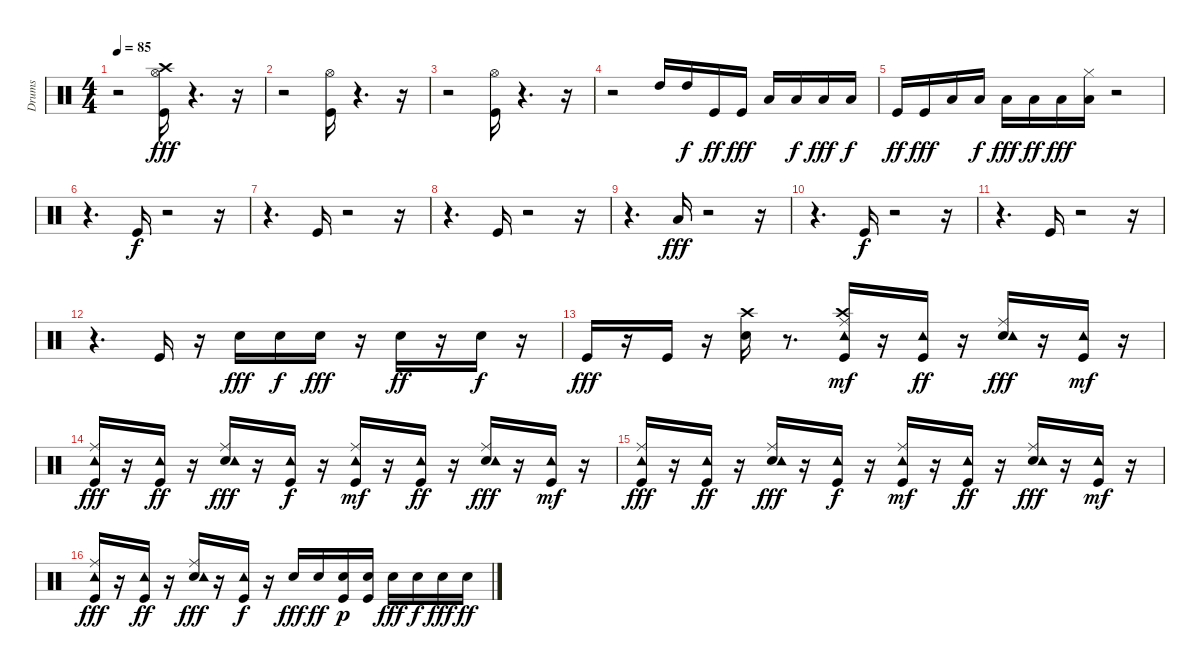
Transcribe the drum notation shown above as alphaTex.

\track ("Drums    " "Drums    ") {instrument percussion}
\staff {score}
\articulation defaults
\ts (4 4)
\tempo 85
\clef neutral
\ks c
r.2{dy f} ("Kick (hit)" "Hi-Hat (open)" "Crash high (hit)").16{dy fff} r.4{d} r.16 |
r.2 ("Kick (hit)" "Hi-Hat (open)").16 r.4{d} r.16 |
r.2 ("Kick (hit)" "Hi-Hat (open)").16 r.4{d} r.16 |
r.2 "High Tom (hit)".16 "High Tom (hit)".16{dy f} "Kick (hit)".16{dy ff} "Kick (hit)".16{dy fff} "Low Tom (hit)".16 "Low Tom (hit)".16{dy f} "Low Tom (hit)".16{dy fff} "Low Tom (hit)".16{dy f} |
"Kick (hit)".16{dy ff} "Kick (hit)".16{dy fff} "Low Floor Tom (hit)".16 "Low Floor Tom (hit)".16{dy f} "Low Floor Tom (hit)".16{dy fff} "Low Floor Tom (hit)".16{dy ff} "Low Floor Tom (hit)".16{dy fff} ("Hi-Hat (closed)" "Low Floor Tom (hit)").16 r.2 |
r.4{d} "Kick (hit)".16{dy f} r.2 r.16 |
r.4{d} "Kick (hit)".16 r.2 r.16 |
r.4{d} "Kick (hit)".16 r.2 r.16 |
r.4{d} "Low Floor Tom (hit)".16{dy fff} r.2 r.16 |
r.4{d} "Kick (hit)".16{dy f} r.2 r.16 |
r.4{d} "Kick (hit)".16 r.2 r.16 |
r.4{d} "Kick (hit)".16 r.16 "Snare (hit) 2".16{dy fff} "Snare (hit) 2".16{dy f} "Snare (hit) 2".16{dy fff} r.16 "Snare (hit) 2".16{dy ff} r.16 "Snare (hit) 2".16{dy f} r.16 |
"Kick (hit)".16{dy fff} r.16 "Kick (hit)".16 r.16 ("Snare (hit) 2" "Crash high (hit)").16 r.8{d} ("Kick (hit)" "Ride (middle)" "Crash high (hit)" "Tambourine (hit)").16{dy mf} r.16 ("Kick (hit)" "Tambourine (hit)").16{dy ff} r.16 ("Snare (hit) 2" "Ride (middle)" "Tambourine (hit)").16{dy fff} r.16 ("Kick (hit)" "Tambourine (hit)").16{dy mf} r.16 |
("Kick (hit)" "Ride (middle)" "Tambourine (hit)").16{dy fff} r.16 ("Kick (hit)" "Tambourine (hit)").16{dy ff} r.16 ("Snare (hit) 2" "Ride (middle)" "Tambourine (hit)").16{dy fff} r.16 ("Kick (hit)" "Tambourine (hit)").16{dy f} r.16 ("Kick (hit)" "Ride (middle)" "Tambourine (hit)").16{dy mf} r.16 ("Kick (hit)" "Tambourine (hit)").16{dy ff} r.16 ("Snare (hit) 2" "Ride (middle)" "Tambourine (hit)").16{dy fff} r.16 ("Kick (hit)" "Tambourine (hit)").16{dy mf} r.16 |
("Kick (hit)" "Ride (middle)" "Tambourine (hit)").16{dy fff} r.16 ("Kick (hit)" "Tambourine (hit)").16{dy ff} r.16 ("Snare (hit) 2" "Ride (middle)" "Tambourine (hit)").16{dy fff} r.16 ("Kick (hit)" "Tambourine (hit)").16{dy f} r.16 ("Kick (hit)" "Ride (middle)" "Tambourine (hit)").16{dy mf} r.16 ("Kick (hit)" "Tambourine (hit)").16{dy ff} r.16 ("Snare (hit) 2" "Ride (middle)" "Tambourine (hit)").16{dy fff} r.16 ("Kick (hit)" "Tambourine (hit)").16{dy mf} r.16 |
("Kick (hit)" "Ride (middle)" "Tambourine (hit)").16{dy fff} r.16 ("Kick (hit)" "Tambourine (hit)").16{dy ff} r.16 ("Snare (hit) 2" "Ride (middle)" "Tambourine (hit)").16{dy fff} r.16 ("Kick (hit)" "Tambourine (hit)").16{dy f} r.16 "Snare (hit) 2".16{dy fff} "Snare (hit) 2".16{dy ff} ("Kick (hit)" "Snare (hit) 2").16{dy p} ("Kick (hit)" "Snare (hit) 2").16 "Snare (hit) 2".16{dy fff} "Snare (hit) 2".16{dy f} "Snare (hit) 2".16{dy fff} "Snare (hit) 2".16{dy ff}
